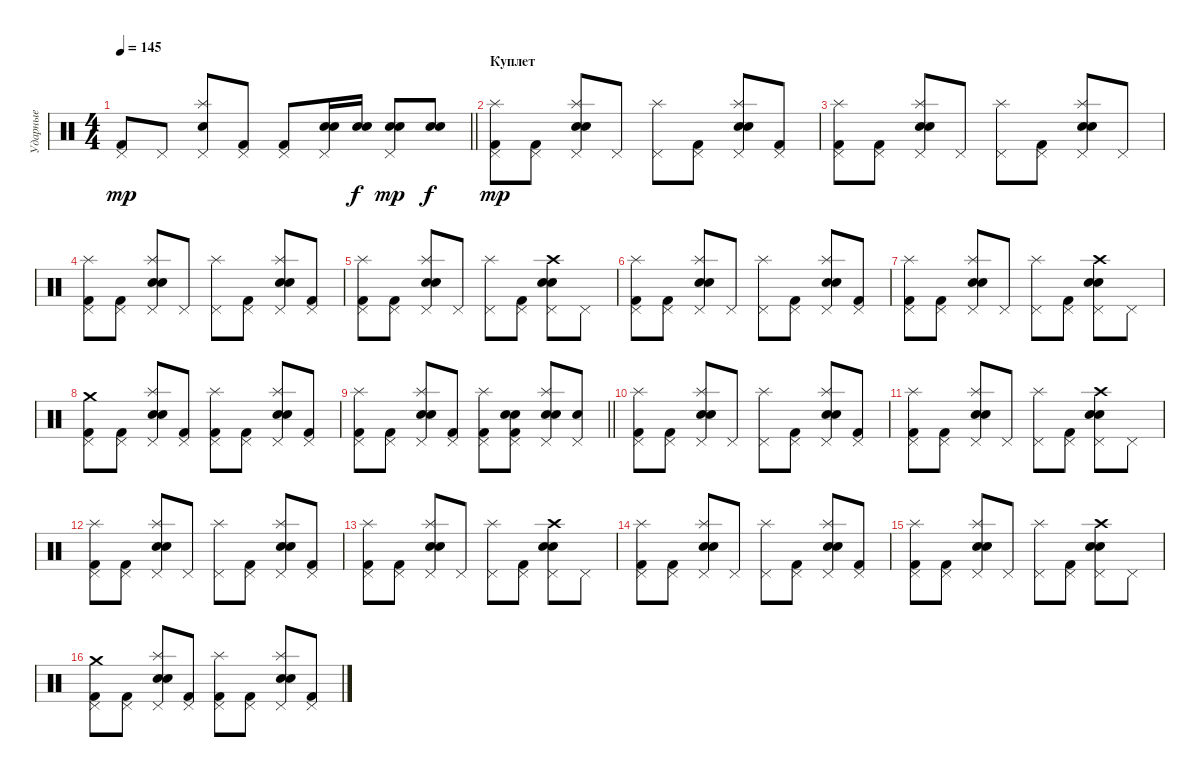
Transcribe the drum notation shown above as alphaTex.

\track ("Ударные" "Ударные") {instrument percussion}
\staff {score}
\articulation defaults
\ts (4 4)
\tempo 145
\clef neutral
\barLineRight lightlight
\ks c
("Pedal Hi-Hat (hit)" "Kick (hit) 2").8{dy mp} "Pedal Hi-Hat (hit)".8 ("Splash (hit)" "Pedal Hi-Hat (hit)" "Electric Snare (hit)").8 ("Pedal Hi-Hat (hit)" "Kick (hit) 2").8 ("Pedal Hi-Hat (hit)" "Kick (hit) 2").8 ("Pedal Hi-Hat (hit)" "Electric Snare (hit)" "Snare (hit) 2").16 ("Electric Snare (hit)" "Snare (hit) 2").16{dy f} ("Pedal Hi-Hat (hit)" "Electric Snare (hit)" "Snare (hit) 2").8{dy mp} ("Electric Snare (hit)" "Snare (hit) 2").8{dy f} |
\section ("" "Куплет")
("Splash (hit)" "Pedal Hi-Hat (hit)" "Kick (hit) 2").8{dy mp} ("Pedal Hi-Hat (hit)" "Kick (hit) 2").8 ("Splash (hit)" "Pedal Hi-Hat (hit)" "Electric Snare (hit)" "Snare (hit) 2").8 "Pedal Hi-Hat (hit)".8 ("Splash (hit)" "Pedal Hi-Hat (hit)").8 ("Pedal Hi-Hat (hit)" "Kick (hit) 2").8 ("Splash (hit)" "Pedal Hi-Hat (hit)" "Electric Snare (hit)" "Snare (hit) 2").8 ("Pedal Hi-Hat (hit)" "Kick (hit) 2").8 |
("Splash (hit)" "Pedal Hi-Hat (hit)" "Kick (hit) 2").8 ("Pedal Hi-Hat (hit)" "Kick (hit) 2").8 ("Splash (hit)" "Pedal Hi-Hat (hit)" "Electric Snare (hit)" "Snare (hit) 2").8 "Pedal Hi-Hat (hit)".8 ("Splash (hit)" "Pedal Hi-Hat (hit)").8 ("Pedal Hi-Hat (hit)" "Kick (hit) 2").8 ("Splash (hit)" "Pedal Hi-Hat (hit)" "Electric Snare (hit)" "Snare (hit) 2").8 "Pedal Hi-Hat (hit)".8 |
("Splash (hit)" "Pedal Hi-Hat (hit)" "Kick (hit) 2").8 ("Pedal Hi-Hat (hit)" "Kick (hit) 2").8 ("Splash (hit)" "Pedal Hi-Hat (hit)" "Electric Snare (hit)" "Snare (hit) 2").8 "Pedal Hi-Hat (hit)".8 ("Splash (hit)" "Pedal Hi-Hat (hit)").8 ("Pedal Hi-Hat (hit)" "Kick (hit) 2").8 ("Splash (hit)" "Pedal Hi-Hat (hit)" "Electric Snare (hit)" "Snare (hit) 2").8 ("Pedal Hi-Hat (hit)" "Kick (hit) 2").8 |
("Splash (hit)" "Pedal Hi-Hat (hit)" "Kick (hit) 2").8 ("Pedal Hi-Hat (hit)" "Kick (hit) 2").8 ("Splash (hit)" "Pedal Hi-Hat (hit)" "Electric Snare (hit)" "Snare (hit) 2").8 "Pedal Hi-Hat (hit)".8 ("Splash (hit)" "Pedal Hi-Hat (hit)").8 ("Pedal Hi-Hat (hit)" "Kick (hit) 2").8 ("Crash high (hit)" "Pedal Hi-Hat (hit)" "Electric Snare (hit)" "Snare (hit) 2").8 "Pedal Hi-Hat (hit)".8 |
("Splash (hit)" "Pedal Hi-Hat (hit)" "Kick (hit) 2").8 ("Pedal Hi-Hat (hit)" "Kick (hit) 2").8 ("Splash (hit)" "Pedal Hi-Hat (hit)" "Electric Snare (hit)" "Snare (hit) 2").8 "Pedal Hi-Hat (hit)".8 ("Splash (hit)" "Pedal Hi-Hat (hit)").8 ("Pedal Hi-Hat (hit)" "Kick (hit) 2").8 ("Splash (hit)" "Pedal Hi-Hat (hit)" "Electric Snare (hit)" "Snare (hit) 2").8 ("Pedal Hi-Hat (hit)" "Kick (hit) 2").8 |
("Splash (hit)" "Pedal Hi-Hat (hit)" "Kick (hit) 2").8 ("Pedal Hi-Hat (hit)" "Kick (hit) 2").8 ("Splash (hit)" "Pedal Hi-Hat (hit)" "Electric Snare (hit)" "Snare (hit) 2").8 "Pedal Hi-Hat (hit)".8 ("Splash (hit)" "Pedal Hi-Hat (hit)").8 ("Pedal Hi-Hat (hit)" "Kick (hit) 2").8 ("Crash high (hit)" "Pedal Hi-Hat (hit)" "Electric Snare (hit)" "Snare (hit) 2").8 "Pedal Hi-Hat (hit)".8 |
("Crash medium (hit)" "Pedal Hi-Hat (hit)" "Kick (hit) 2").8 ("Pedal Hi-Hat (hit)" "Kick (hit) 2").8 ("Splash (hit)" "Pedal Hi-Hat (hit)" "Electric Snare (hit)" "Snare (hit) 2").8 ("Pedal Hi-Hat (hit)" "Kick (hit) 2").8 ("Splash (hit)" "Pedal Hi-Hat (hit)" "Kick (hit) 2").8 ("Pedal Hi-Hat (hit)" "Kick (hit) 2").8 ("Splash (hit)" "Pedal Hi-Hat (hit)" "Electric Snare (hit)" "Snare (hit) 2").8 ("Pedal Hi-Hat (hit)" "Kick (hit) 2").8 |
\barLineRight lightlight
("Splash (hit)" "Pedal Hi-Hat (hit)" "Kick (hit) 2").8 ("Pedal Hi-Hat (hit)" "Kick (hit) 2").8 ("Splash (hit)" "Pedal Hi-Hat (hit)" "Electric Snare (hit)" "Snare (hit) 2").8 ("Pedal Hi-Hat (hit)" "Kick (hit) 2").8 ("Splash (hit)" "Pedal Hi-Hat (hit)" "Kick (hit) 2").8 ("Pedal Hi-Hat (hit)" "Electric Snare (hit)" "Snare (hit) 2" "Kick (hit) 2").8 ("Splash (hit)" "Pedal Hi-Hat (hit)" "Electric Snare (hit)" "Snare (hit) 2").8 ("Pedal Hi-Hat (hit)" "Electric Snare (hit)").8 |
("Splash (hit)" "Pedal Hi-Hat (hit)" "Kick (hit) 2").8 ("Pedal Hi-Hat (hit)" "Kick (hit) 2").8 ("Splash (hit)" "Pedal Hi-Hat (hit)" "Electric Snare (hit)" "Snare (hit) 2").8 "Pedal Hi-Hat (hit)".8 ("Splash (hit)" "Pedal Hi-Hat (hit)").8 ("Pedal Hi-Hat (hit)" "Kick (hit) 2").8 ("Splash (hit)" "Pedal Hi-Hat (hit)" "Electric Snare (hit)" "Snare (hit) 2").8 ("Pedal Hi-Hat (hit)" "Kick (hit) 2").8 |
("Splash (hit)" "Pedal Hi-Hat (hit)" "Kick (hit) 2").8 ("Pedal Hi-Hat (hit)" "Kick (hit) 2").8 ("Splash (hit)" "Pedal Hi-Hat (hit)" "Electric Snare (hit)" "Snare (hit) 2").8 "Pedal Hi-Hat (hit)".8 ("Splash (hit)" "Pedal Hi-Hat (hit)").8 ("Pedal Hi-Hat (hit)" "Kick (hit) 2").8 ("Crash high (hit)" "Pedal Hi-Hat (hit)" "Electric Snare (hit)" "Snare (hit) 2").8 "Pedal Hi-Hat (hit)".8 |
("Splash (hit)" "Pedal Hi-Hat (hit)" "Kick (hit) 2").8 ("Pedal Hi-Hat (hit)" "Kick (hit) 2").8 ("Splash (hit)" "Pedal Hi-Hat (hit)" "Electric Snare (hit)" "Snare (hit) 2").8 "Pedal Hi-Hat (hit)".8 ("Splash (hit)" "Pedal Hi-Hat (hit)").8 ("Pedal Hi-Hat (hit)" "Kick (hit) 2").8 ("Splash (hit)" "Pedal Hi-Hat (hit)" "Electric Snare (hit)" "Snare (hit) 2").8 ("Pedal Hi-Hat (hit)" "Kick (hit) 2").8 |
("Splash (hit)" "Pedal Hi-Hat (hit)" "Kick (hit) 2").8 ("Pedal Hi-Hat (hit)" "Kick (hit) 2").8 ("Splash (hit)" "Pedal Hi-Hat (hit)" "Electric Snare (hit)" "Snare (hit) 2").8 "Pedal Hi-Hat (hit)".8 ("Splash (hit)" "Pedal Hi-Hat (hit)").8 ("Pedal Hi-Hat (hit)" "Kick (hit) 2").8 ("Crash high (hit)" "Pedal Hi-Hat (hit)" "Electric Snare (hit)" "Snare (hit) 2").8 "Pedal Hi-Hat (hit)".8 |
("Splash (hit)" "Pedal Hi-Hat (hit)" "Kick (hit) 2").8 ("Pedal Hi-Hat (hit)" "Kick (hit) 2").8 ("Splash (hit)" "Pedal Hi-Hat (hit)" "Electric Snare (hit)" "Snare (hit) 2").8 "Pedal Hi-Hat (hit)".8 ("Splash (hit)" "Pedal Hi-Hat (hit)").8 ("Pedal Hi-Hat (hit)" "Kick (hit) 2").8 ("Splash (hit)" "Pedal Hi-Hat (hit)" "Electric Snare (hit)" "Snare (hit) 2").8 ("Pedal Hi-Hat (hit)" "Kick (hit) 2").8 |
("Splash (hit)" "Pedal Hi-Hat (hit)" "Kick (hit) 2").8 ("Pedal Hi-Hat (hit)" "Kick (hit) 2").8 ("Splash (hit)" "Pedal Hi-Hat (hit)" "Electric Snare (hit)" "Snare (hit) 2").8 "Pedal Hi-Hat (hit)".8 ("Splash (hit)" "Pedal Hi-Hat (hit)").8 ("Pedal Hi-Hat (hit)" "Kick (hit) 2").8 ("Crash high (hit)" "Pedal Hi-Hat (hit)" "Electric Snare (hit)" "Snare (hit) 2").8 "Pedal Hi-Hat (hit)".8 |
("Crash medium (hit)" "Pedal Hi-Hat (hit)" "Kick (hit) 2").8 ("Pedal Hi-Hat (hit)" "Kick (hit) 2").8 ("Splash (hit)" "Pedal Hi-Hat (hit)" "Electric Snare (hit)" "Snare (hit) 2").8 ("Pedal Hi-Hat (hit)" "Kick (hit) 2").8 ("Splash (hit)" "Pedal Hi-Hat (hit)" "Kick (hit) 2").8 ("Pedal Hi-Hat (hit)" "Kick (hit) 2").8 ("Splash (hit)" "Pedal Hi-Hat (hit)" "Electric Snare (hit)" "Snare (hit) 2").8 ("Pedal Hi-Hat (hit)" "Kick (hit) 2").8
